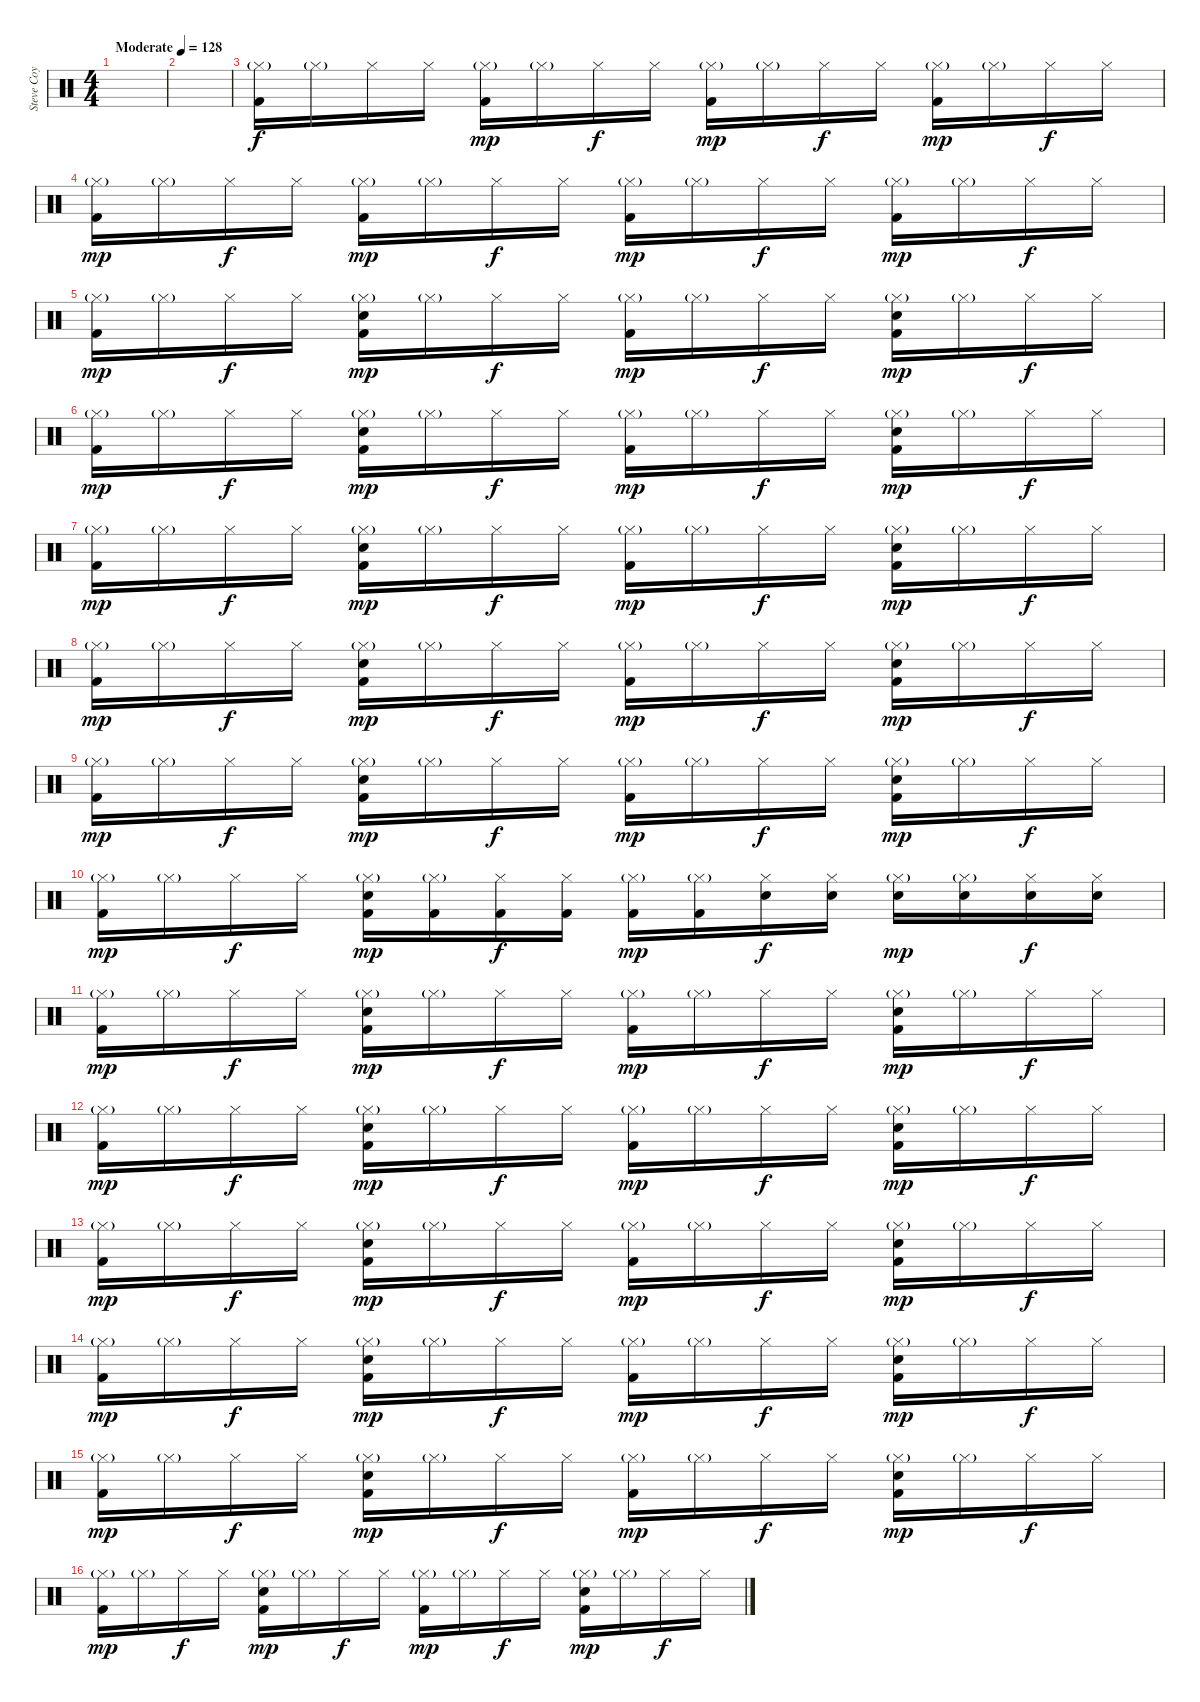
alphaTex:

\track ("Steve Coy" "Steve Coy") {instrument percussion}
\staff {score}
\articulation defaults
\ts (4 4)
\tempo (128 "Moderate")
\clef neutral
\ks c
|
|
("Hi-Hat (closed)"{g} "Kick (hit) 2").16 "Hi-Hat (closed)"{g}.16 "Hi-Hat (closed)".16{dy f} "Hi-Hat (closed)".16 ("Hi-Hat (closed)"{g} "Kick (hit) 2").16{dy mp} "Hi-Hat (closed)"{g}.16 "Hi-Hat (closed)".16{dy f} "Hi-Hat (closed)".16 ("Hi-Hat (closed)"{g} "Kick (hit) 2").16{dy mp} "Hi-Hat (closed)"{g}.16 "Hi-Hat (closed)".16{dy f} "Hi-Hat (closed)".16 ("Hi-Hat (closed)"{g} "Kick (hit) 2").16{dy mp} "Hi-Hat (closed)"{g}.16 "Hi-Hat (closed)".16{dy f} "Hi-Hat (closed)".16 |
("Hi-Hat (closed)"{g} "Kick (hit) 2").16{dy mp} "Hi-Hat (closed)"{g}.16 "Hi-Hat (closed)".16{dy f} "Hi-Hat (closed)".16 ("Hi-Hat (closed)"{g} "Kick (hit) 2").16{dy mp} "Hi-Hat (closed)"{g}.16 "Hi-Hat (closed)".16{dy f} "Hi-Hat (closed)".16 ("Hi-Hat (closed)"{g} "Kick (hit) 2").16{dy mp} "Hi-Hat (closed)"{g}.16 "Hi-Hat (closed)".16{dy f} "Hi-Hat (closed)".16 ("Hi-Hat (closed)"{g} "Kick (hit) 2").16{dy mp} "Hi-Hat (closed)"{g}.16 "Hi-Hat (closed)".16{dy f} "Hi-Hat (closed)".16 |
("Hi-Hat (closed)"{g} "Kick (hit) 2").16{dy mp} "Hi-Hat (closed)"{g}.16 "Hi-Hat (closed)".16{dy f} "Hi-Hat (closed)".16 ("Hi-Hat (closed)"{g} "Snare (hit) 2" "Kick (hit) 2").16{dy mp} "Hi-Hat (closed)"{g}.16 "Hi-Hat (closed)".16{dy f} "Hi-Hat (closed)".16 ("Hi-Hat (closed)"{g} "Kick (hit) 2").16{dy mp} "Hi-Hat (closed)"{g}.16 "Hi-Hat (closed)".16{dy f} "Hi-Hat (closed)".16 ("Hi-Hat (closed)"{g} "Snare (hit) 2" "Kick (hit) 2").16{dy mp} "Hi-Hat (closed)"{g}.16 "Hi-Hat (closed)".16{dy f} "Hi-Hat (closed)".16 |
("Hi-Hat (closed)"{g} "Kick (hit) 2").16{dy mp} "Hi-Hat (closed)"{g}.16 "Hi-Hat (closed)".16{dy f} "Hi-Hat (closed)".16 ("Hi-Hat (closed)"{g} "Snare (hit) 2" "Kick (hit) 2").16{dy mp} "Hi-Hat (closed)"{g}.16 "Hi-Hat (closed)".16{dy f} "Hi-Hat (closed)".16 ("Hi-Hat (closed)"{g} "Kick (hit) 2").16{dy mp} "Hi-Hat (closed)"{g}.16 "Hi-Hat (closed)".16{dy f} "Hi-Hat (closed)".16 ("Hi-Hat (closed)"{g} "Snare (hit) 2" "Kick (hit) 2").16{dy mp} "Hi-Hat (closed)"{g}.16 "Hi-Hat (closed)".16{dy f} "Hi-Hat (closed)".16 |
("Hi-Hat (closed)"{g} "Kick (hit) 2").16{dy mp} "Hi-Hat (closed)"{g}.16 "Hi-Hat (closed)".16{dy f} "Hi-Hat (closed)".16 ("Hi-Hat (closed)"{g} "Snare (hit) 2" "Kick (hit) 2").16{dy mp} "Hi-Hat (closed)"{g}.16 "Hi-Hat (closed)".16{dy f} "Hi-Hat (closed)".16 ("Hi-Hat (closed)"{g} "Kick (hit) 2").16{dy mp} "Hi-Hat (closed)"{g}.16 "Hi-Hat (closed)".16{dy f} "Hi-Hat (closed)".16 ("Hi-Hat (closed)"{g} "Snare (hit) 2" "Kick (hit) 2").16{dy mp} "Hi-Hat (closed)"{g}.16 "Hi-Hat (closed)".16{dy f} "Hi-Hat (closed)".16 |
("Hi-Hat (closed)"{g} "Kick (hit) 2").16{dy mp} "Hi-Hat (closed)"{g}.16 "Hi-Hat (closed)".16{dy f} "Hi-Hat (closed)".16 ("Hi-Hat (closed)"{g} "Snare (hit) 2" "Kick (hit) 2").16{dy mp} "Hi-Hat (closed)"{g}.16 "Hi-Hat (closed)".16{dy f} "Hi-Hat (closed)".16 ("Hi-Hat (closed)"{g} "Kick (hit) 2").16{dy mp} "Hi-Hat (closed)"{g}.16 "Hi-Hat (closed)".16{dy f} "Hi-Hat (closed)".16 ("Hi-Hat (closed)"{g} "Snare (hit) 2" "Kick (hit) 2").16{dy mp} "Hi-Hat (closed)"{g}.16 "Hi-Hat (closed)".16{dy f} "Hi-Hat (closed)".16 |
("Hi-Hat (closed)"{g} "Kick (hit) 2").16{dy mp} "Hi-Hat (closed)"{g}.16 "Hi-Hat (closed)".16{dy f} "Hi-Hat (closed)".16 ("Hi-Hat (closed)"{g} "Snare (hit) 2" "Kick (hit) 2").16{dy mp} "Hi-Hat (closed)"{g}.16 "Hi-Hat (closed)".16{dy f} "Hi-Hat (closed)".16 ("Hi-Hat (closed)"{g} "Kick (hit) 2").16{dy mp} "Hi-Hat (closed)"{g}.16 "Hi-Hat (closed)".16{dy f} "Hi-Hat (closed)".16 ("Hi-Hat (closed)"{g} "Snare (hit) 2" "Kick (hit) 2").16{dy mp} "Hi-Hat (closed)"{g}.16 "Hi-Hat (closed)".16{dy f} "Hi-Hat (closed)".16 |
("Hi-Hat (closed)"{g} "Kick (hit) 2").16{dy mp} "Hi-Hat (closed)"{g}.16 "Hi-Hat (closed)".16{dy f} "Hi-Hat (closed)".16 ("Hi-Hat (closed)"{g} "Snare (hit) 2" "Kick (hit) 2").16{dy mp} ("Hi-Hat (closed)"{g} "Kick (hit) 2").16 ("Hi-Hat (closed)" "Kick (hit) 2").16{dy f} ("Hi-Hat (closed)" "Kick (hit) 2").16 ("Hi-Hat (closed)"{g} "Kick (hit) 2").16{dy mp} ("Hi-Hat (closed)"{g} "Kick (hit) 2").16 ("Hi-Hat (closed)" "Snare (hit) 2").16{dy f} ("Hi-Hat (closed)" "Snare (hit) 2").16 ("Hi-Hat (closed)"{g} "Snare (hit) 2").16{dy mp} ("Hi-Hat (closed)"{g} "Snare (hit) 2").16 ("Hi-Hat (closed)" "Snare (hit) 2").16{dy f} ("Hi-Hat (closed)" "Snare (hit) 2").16 |
("Hi-Hat (closed)"{g} "Kick (hit) 2").16{dy mp} "Hi-Hat (closed)"{g}.16 "Hi-Hat (closed)".16{dy f} "Hi-Hat (closed)".16 ("Hi-Hat (closed)"{g} "Snare (hit) 2" "Kick (hit) 2").16{dy mp} "Hi-Hat (closed)"{g}.16 "Hi-Hat (closed)".16{dy f} "Hi-Hat (closed)".16 ("Hi-Hat (closed)"{g} "Kick (hit) 2").16{dy mp} "Hi-Hat (closed)"{g}.16 "Hi-Hat (closed)".16{dy f} "Hi-Hat (closed)".16 ("Hi-Hat (closed)"{g} "Snare (hit) 2" "Kick (hit) 2").16{dy mp} "Hi-Hat (closed)"{g}.16 "Hi-Hat (closed)".16{dy f} "Hi-Hat (closed)".16 |
("Hi-Hat (closed)"{g} "Kick (hit) 2").16{dy mp} "Hi-Hat (closed)"{g}.16 "Hi-Hat (closed)".16{dy f} "Hi-Hat (closed)".16 ("Hi-Hat (closed)"{g} "Snare (hit) 2" "Kick (hit) 2").16{dy mp} "Hi-Hat (closed)"{g}.16 "Hi-Hat (closed)".16{dy f} "Hi-Hat (closed)".16 ("Hi-Hat (closed)"{g} "Kick (hit) 2").16{dy mp} "Hi-Hat (closed)"{g}.16 "Hi-Hat (closed)".16{dy f} "Hi-Hat (closed)".16 ("Hi-Hat (closed)"{g} "Snare (hit) 2" "Kick (hit) 2").16{dy mp} "Hi-Hat (closed)"{g}.16 "Hi-Hat (closed)".16{dy f} "Hi-Hat (closed)".16 |
("Hi-Hat (closed)"{g} "Kick (hit) 2").16{dy mp} "Hi-Hat (closed)"{g}.16 "Hi-Hat (closed)".16{dy f} "Hi-Hat (closed)".16 ("Hi-Hat (closed)"{g} "Snare (hit) 2" "Kick (hit) 2").16{dy mp} "Hi-Hat (closed)"{g}.16 "Hi-Hat (closed)".16{dy f} "Hi-Hat (closed)".16 ("Hi-Hat (closed)"{g} "Kick (hit) 2").16{dy mp} "Hi-Hat (closed)"{g}.16 "Hi-Hat (closed)".16{dy f} "Hi-Hat (closed)".16 ("Hi-Hat (closed)"{g} "Snare (hit) 2" "Kick (hit) 2").16{dy mp} "Hi-Hat (closed)"{g}.16 "Hi-Hat (closed)".16{dy f} "Hi-Hat (closed)".16 |
("Hi-Hat (closed)"{g} "Kick (hit) 2").16{dy mp} "Hi-Hat (closed)"{g}.16 "Hi-Hat (closed)".16{dy f} "Hi-Hat (closed)".16 ("Hi-Hat (closed)"{g} "Snare (hit) 2" "Kick (hit) 2").16{dy mp} "Hi-Hat (closed)"{g}.16 "Hi-Hat (closed)".16{dy f} "Hi-Hat (closed)".16 ("Hi-Hat (closed)"{g} "Kick (hit) 2").16{dy mp} "Hi-Hat (closed)"{g}.16 "Hi-Hat (closed)".16{dy f} "Hi-Hat (closed)".16 ("Hi-Hat (closed)"{g} "Snare (hit) 2" "Kick (hit) 2").16{dy mp} "Hi-Hat (closed)"{g}.16 "Hi-Hat (closed)".16{dy f} "Hi-Hat (closed)".16 |
("Hi-Hat (closed)"{g} "Kick (hit) 2").16{dy mp} "Hi-Hat (closed)"{g}.16 "Hi-Hat (closed)".16{dy f} "Hi-Hat (closed)".16 ("Hi-Hat (closed)"{g} "Snare (hit) 2" "Kick (hit) 2").16{dy mp} "Hi-Hat (closed)"{g}.16 "Hi-Hat (closed)".16{dy f} "Hi-Hat (closed)".16 ("Hi-Hat (closed)"{g} "Kick (hit) 2").16{dy mp} "Hi-Hat (closed)"{g}.16 "Hi-Hat (closed)".16{dy f} "Hi-Hat (closed)".16 ("Hi-Hat (closed)"{g} "Snare (hit) 2" "Kick (hit) 2").16{dy mp} "Hi-Hat (closed)"{g}.16 "Hi-Hat (closed)".16{dy f} "Hi-Hat (closed)".16 |
("Hi-Hat (closed)"{g} "Kick (hit) 2").16{dy mp} "Hi-Hat (closed)"{g}.16 "Hi-Hat (closed)".16{dy f} "Hi-Hat (closed)".16 ("Hi-Hat (closed)"{g} "Snare (hit) 2" "Kick (hit) 2").16{dy mp} "Hi-Hat (closed)"{g}.16 "Hi-Hat (closed)".16{dy f} "Hi-Hat (closed)".16 ("Hi-Hat (closed)"{g} "Kick (hit) 2").16{dy mp} "Hi-Hat (closed)"{g}.16 "Hi-Hat (closed)".16{dy f} "Hi-Hat (closed)".16 ("Hi-Hat (closed)"{g} "Snare (hit) 2" "Kick (hit) 2").16{dy mp} "Hi-Hat (closed)"{g}.16 "Hi-Hat (closed)".16{dy f} "Hi-Hat (closed)".16
